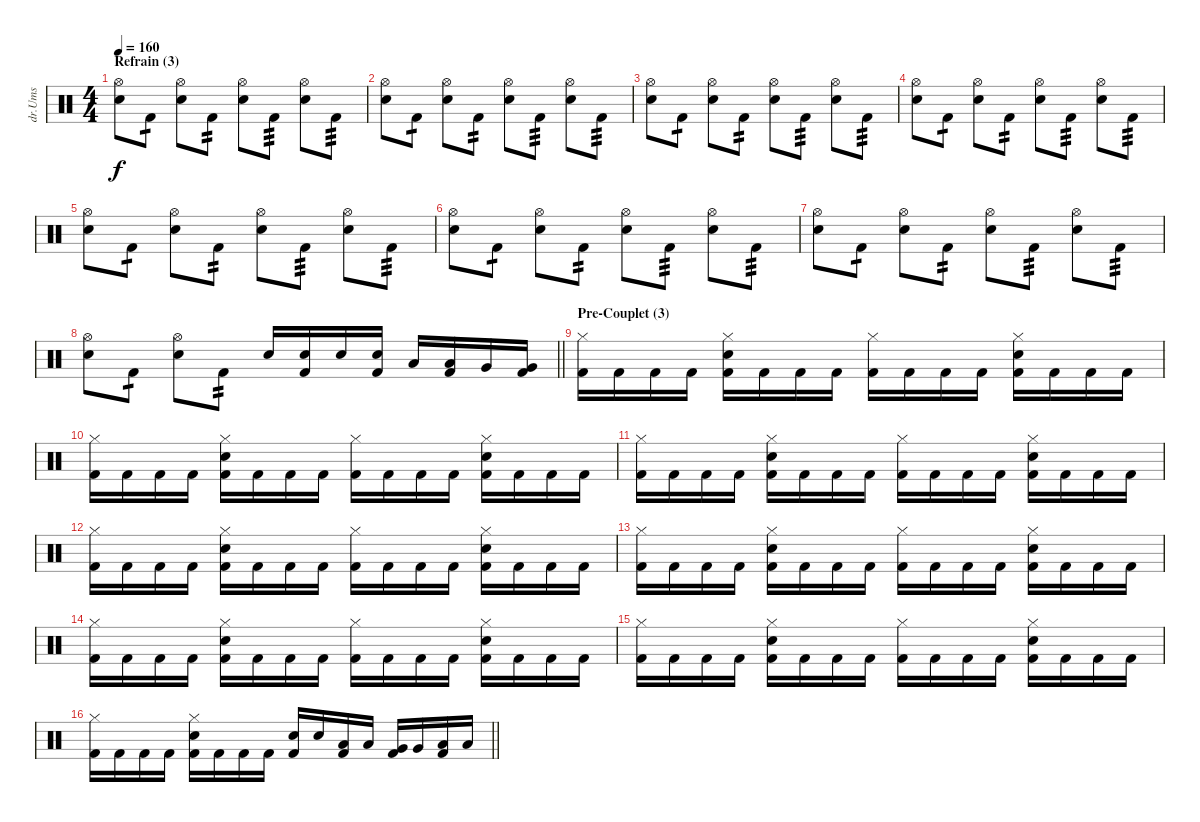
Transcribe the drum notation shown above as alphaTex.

\track ("dr.Ums" "dr.Ums") {instrument percussion}
\staff {score}
\articulation defaults
\ts (4 4)
\section ("" "Refrain (3)")
\tempo 160
\clef neutral
\ks c
("Snare (hit) 2" "Hi-Hat (open)").8{dy f} "Kick (hit) 2".8{tp 1} ("Snare (hit) 2" "Hi-Hat (open)").8 "Kick (hit) 2".8{tp 2} ("Snare (hit) 2" "Hi-Hat (open)").8 "Kick (hit) 2".8{tp 3} ("Snare (hit) 2" "Hi-Hat (open)").8 "Kick (hit) 2".8{tp 3} |
("Snare (hit) 2" "Hi-Hat (open)").8 "Kick (hit) 2".8{tp 1} ("Snare (hit) 2" "Hi-Hat (open)").8 "Kick (hit) 2".8{tp 2} ("Snare (hit) 2" "Hi-Hat (open)").8 "Kick (hit) 2".8{tp 3} ("Snare (hit) 2" "Hi-Hat (open)").8 "Kick (hit) 2".8{tp 3} |
("Snare (hit) 2" "Hi-Hat (open)").8 "Kick (hit) 2".8{tp 1} ("Snare (hit) 2" "Hi-Hat (open)").8 "Kick (hit) 2".8{tp 2} ("Snare (hit) 2" "Hi-Hat (open)").8 "Kick (hit) 2".8{tp 3} ("Snare (hit) 2" "Hi-Hat (open)").8 "Kick (hit) 2".8{tp 3} |
("Snare (hit) 2" "Hi-Hat (open)").8 "Kick (hit) 2".8{tp 1} ("Snare (hit) 2" "Hi-Hat (open)").8 "Kick (hit) 2".8{tp 2} ("Snare (hit) 2" "Hi-Hat (open)").8 "Kick (hit) 2".8{tp 3} ("Snare (hit) 2" "Hi-Hat (open)").8 "Kick (hit) 2".8{tp 3} |
("Snare (hit) 2" "Hi-Hat (open)").8 "Kick (hit) 2".8{tp 1} ("Snare (hit) 2" "Hi-Hat (open)").8 "Kick (hit) 2".8{tp 2} ("Snare (hit) 2" "Hi-Hat (open)").8 "Kick (hit) 2".8{tp 3} ("Snare (hit) 2" "Hi-Hat (open)").8 "Kick (hit) 2".8{tp 3} |
("Snare (hit) 2" "Hi-Hat (open)").8 "Kick (hit) 2".8{tp 1} ("Snare (hit) 2" "Hi-Hat (open)").8 "Kick (hit) 2".8{tp 2} ("Snare (hit) 2" "Hi-Hat (open)").8 "Kick (hit) 2".8{tp 3} ("Snare (hit) 2" "Hi-Hat (open)").8 "Kick (hit) 2".8{tp 3} |
("Snare (hit) 2" "Hi-Hat (open)").8 "Kick (hit) 2".8{tp 1} ("Snare (hit) 2" "Hi-Hat (open)").8 "Kick (hit) 2".8{tp 2} ("Snare (hit) 2" "Hi-Hat (open)").8 "Kick (hit) 2".8{tp 3} ("Snare (hit) 2" "Hi-Hat (open)").8 "Kick (hit) 2".8{tp 3} |
\barLineRight lightlight
("Snare (hit) 2" "Hi-Hat (open)").8 "Kick (hit) 2".8{tp 1} ("Snare (hit) 2" "Hi-Hat (open)").8 "Kick (hit) 2".8{tp 2} "Snare (hit) 2".16 ("Snare (hit) 2" "Kick (hit) 2").16 "Snare (hit) 2".16 ("Snare (hit) 2" "Kick (hit) 2").16 "Low Tom (hit)".16 ("Low Tom (hit)" "Kick (hit) 2").16 "Very Low Tom (hit)".16 ("Very Low Tom (hit)" "Kick (hit) 2").16 |
\section ("" "Pre-Couplet (3)")
("Hi-Hat (closed)" "Kick (hit) 2").16 "Kick (hit) 2".16 "Kick (hit) 2".16 "Kick (hit) 2".16 ("Snare (hit) 2" "Hi-Hat (closed)" "Kick (hit) 2").16 "Kick (hit) 2".16 "Kick (hit) 2".16 "Kick (hit) 2".16 ("Hi-Hat (closed)" "Kick (hit) 2").16 "Kick (hit) 2".16 "Kick (hit) 2".16 "Kick (hit) 2".16 ("Snare (hit) 2" "Hi-Hat (closed)" "Kick (hit) 2").16 "Kick (hit) 2".16 "Kick (hit) 2".16 "Kick (hit) 2".16 |
("Hi-Hat (closed)" "Kick (hit) 2").16 "Kick (hit) 2".16 "Kick (hit) 2".16 "Kick (hit) 2".16 ("Snare (hit) 2" "Hi-Hat (closed)" "Kick (hit) 2").16 "Kick (hit) 2".16 "Kick (hit) 2".16 "Kick (hit) 2".16 ("Hi-Hat (closed)" "Kick (hit) 2").16 "Kick (hit) 2".16 "Kick (hit) 2".16 "Kick (hit) 2".16 ("Snare (hit) 2" "Hi-Hat (closed)" "Kick (hit) 2").16 "Kick (hit) 2".16 "Kick (hit) 2".16 "Kick (hit) 2".16 |
("Hi-Hat (closed)" "Kick (hit) 2").16 "Kick (hit) 2".16 "Kick (hit) 2".16 "Kick (hit) 2".16 ("Snare (hit) 2" "Hi-Hat (closed)" "Kick (hit) 2").16 "Kick (hit) 2".16 "Kick (hit) 2".16 "Kick (hit) 2".16 ("Hi-Hat (closed)" "Kick (hit) 2").16 "Kick (hit) 2".16 "Kick (hit) 2".16 "Kick (hit) 2".16 ("Snare (hit) 2" "Hi-Hat (closed)" "Kick (hit) 2").16 "Kick (hit) 2".16 "Kick (hit) 2".16 "Kick (hit) 2".16 |
("Hi-Hat (closed)" "Kick (hit) 2").16 "Kick (hit) 2".16 "Kick (hit) 2".16 "Kick (hit) 2".16 ("Snare (hit) 2" "Hi-Hat (closed)" "Kick (hit) 2").16 "Kick (hit) 2".16 "Kick (hit) 2".16 "Kick (hit) 2".16 ("Hi-Hat (closed)" "Kick (hit) 2").16 "Kick (hit) 2".16 "Kick (hit) 2".16 "Kick (hit) 2".16 ("Snare (hit) 2" "Hi-Hat (closed)" "Kick (hit) 2").16 "Kick (hit) 2".16 "Kick (hit) 2".16 "Kick (hit) 2".16 |
("Hi-Hat (closed)" "Kick (hit) 2").16 "Kick (hit) 2".16 "Kick (hit) 2".16 "Kick (hit) 2".16 ("Snare (hit) 2" "Hi-Hat (closed)" "Kick (hit) 2").16 "Kick (hit) 2".16 "Kick (hit) 2".16 "Kick (hit) 2".16 ("Hi-Hat (closed)" "Kick (hit) 2").16 "Kick (hit) 2".16 "Kick (hit) 2".16 "Kick (hit) 2".16 ("Snare (hit) 2" "Hi-Hat (closed)" "Kick (hit) 2").16 "Kick (hit) 2".16 "Kick (hit) 2".16 "Kick (hit) 2".16 |
("Hi-Hat (closed)" "Kick (hit) 2").16 "Kick (hit) 2".16 "Kick (hit) 2".16 "Kick (hit) 2".16 ("Snare (hit) 2" "Hi-Hat (closed)" "Kick (hit) 2").16 "Kick (hit) 2".16 "Kick (hit) 2".16 "Kick (hit) 2".16 ("Hi-Hat (closed)" "Kick (hit) 2").16 "Kick (hit) 2".16 "Kick (hit) 2".16 "Kick (hit) 2".16 ("Snare (hit) 2" "Hi-Hat (closed)" "Kick (hit) 2").16 "Kick (hit) 2".16 "Kick (hit) 2".16 "Kick (hit) 2".16 |
("Hi-Hat (closed)" "Kick (hit) 2").16 "Kick (hit) 2".16 "Kick (hit) 2".16 "Kick (hit) 2".16 ("Snare (hit) 2" "Hi-Hat (closed)" "Kick (hit) 2").16 "Kick (hit) 2".16 "Kick (hit) 2".16 "Kick (hit) 2".16 ("Hi-Hat (closed)" "Kick (hit) 2").16 "Kick (hit) 2".16 "Kick (hit) 2".16 "Kick (hit) 2".16 ("Snare (hit) 2" "Hi-Hat (closed)" "Kick (hit) 2").16 "Kick (hit) 2".16 "Kick (hit) 2".16 "Kick (hit) 2".16 |
\barLineRight lightlight
("Hi-Hat (closed)" "Kick (hit) 2").16 "Kick (hit) 2".16 "Kick (hit) 2".16 "Kick (hit) 2".16 ("Snare (hit) 2" "Hi-Hat (closed)" "Kick (hit) 2").16 "Kick (hit) 2".16 "Kick (hit) 2".16 "Kick (hit) 2".16 ("Snare (hit) 2" "Kick (hit) 2").16 "Snare (hit) 2".16 ("Low Tom (hit)" "Kick (hit) 2").16 "Low Tom (hit)".16 ("Very Low Tom (hit)" "Kick (hit) 2").16 "Very Low Tom (hit)".16 ("Low Floor Tom (hit)" "Kick (hit) 2").16 "Low Floor Tom (hit)".16
